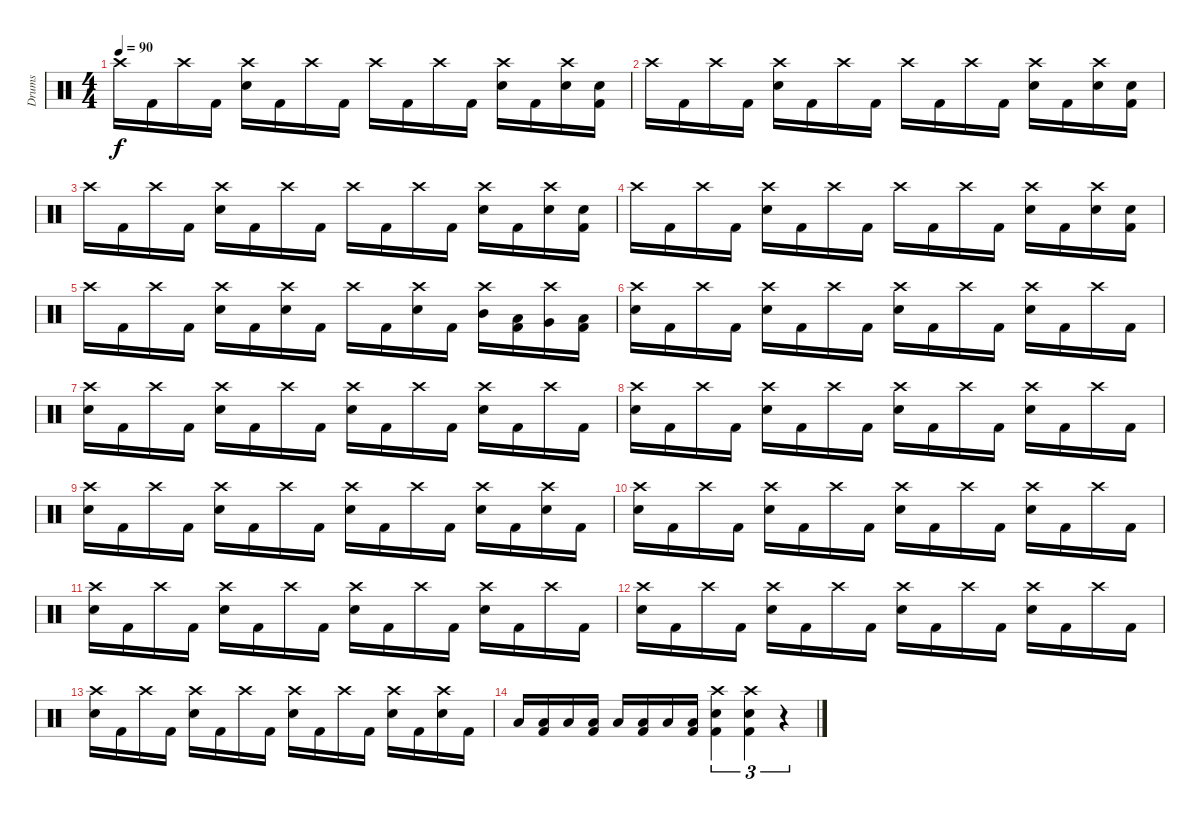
\track ("Drums" "Drums") {instrument percussion}
\staff {score}
\articulation defaults
\ts (4 4)
\tempo 90
\clef neutral
\ks c "Crash high (hit)".16{dy f} "Kick (hit) 2".16 "Crash high (hit)".16 "Kick (hit) 2".16
("Crash high (hit)" "Electric Snare (hit)").16 "Kick (hit) 2".16 "Crash high (hit)".16 "Kick (hit) 2".16 "Crash high (hit)".16 "Kick (hit) 2".16 "Crash high (hit)".16 "Kick (hit) 2".16 ("Crash high (hit)" "Electric Snare (hit)").16 "Kick (hit) 2".16 ("Crash high (hit)" "Electric Snare (hit)").16 ("Electric Snare (hit)" "Kick (hit) 2").16 |
"Crash high (hit)".16 "Kick (hit) 2".16 "Crash high (hit)".16 "Kick (hit) 2".16 ("Crash high (hit)" "Electric Snare (hit)").16 "Kick (hit) 2".16 "Crash high (hit)".16 "Kick (hit) 2".16 "Crash high (hit)".16 "Kick (hit) 2".16 "Crash high (hit)".16 "Kick (hit) 2".16 ("Crash high (hit)" "Electric Snare (hit)").16 "Kick (hit) 2".16 ("Crash high (hit)" "Electric Snare (hit)").16 ("Electric Snare (hit)" "Kick (hit) 2").16 |
"Crash high (hit)".16 "Kick (hit) 2".16 "Crash high (hit)".16 "Kick (hit) 2".16 ("Crash high (hit)" "Electric Snare (hit)").16 "Kick (hit) 2".16 "Crash high (hit)".16 "Kick (hit) 2".16 "Crash high (hit)".16 "Kick (hit) 2".16 "Crash high (hit)".16 "Kick (hit) 2".16 ("Crash high (hit)" "Electric Snare (hit)").16 "Kick (hit) 2".16 ("Crash high (hit)" "Electric Snare (hit)").16 ("Electric Snare (hit)" "Kick (hit) 2").16 |
"Crash high (hit)".16 "Kick (hit) 2".16 "Crash high (hit)".16 "Kick (hit) 2".16 ("Crash high (hit)" "Electric Snare (hit)").16 "Kick (hit) 2".16 "Crash high (hit)".16 "Kick (hit) 2".16 "Crash high (hit)".16 "Kick (hit) 2".16 "Crash high (hit)".16 "Kick (hit) 2".16 ("Crash high (hit)" "Electric Snare (hit)").16 "Kick (hit) 2".16 ("Crash high (hit)" "Electric Snare (hit)").16 ("Electric Snare (hit)" "Kick (hit) 2").16 |
"Crash high (hit)".16 "Kick (hit) 2".16 "Crash high (hit)".16 "Kick (hit) 2".16 ("Crash high (hit)" "Electric Snare (hit)").16 "Kick (hit) 2".16 ("Crash high (hit)" "Electric Snare (hit)").16 "Kick (hit) 2".16 "Crash high (hit)".16 "Kick (hit) 2".16 ("Crash high (hit)" "Electric Snare (hit)").16 "Kick (hit) 2".16 ("Crash high (hit)" "Mid Tom (hit)").16 ("Low Tom (hit)" "Kick (hit) 2").16 ("Crash high (hit)" "Very Low Tom (hit)").16 ("Low Floor Tom (hit)" "Kick (hit) 2").16 |
("Crash high (hit)" "Electric Snare (hit)").16 "Kick (hit) 2".16 "Crash high (hit)".16 "Kick (hit) 2".16 ("Crash high (hit)" "Electric Snare (hit)").16 "Kick (hit) 2".16 "Crash high (hit)".16 "Kick (hit) 2".16 ("Crash high (hit)" "Electric Snare (hit)").16 "Kick (hit) 2".16 "Crash high (hit)".16 "Kick (hit) 2".16 ("Crash high (hit)" "Electric Snare (hit)").16 "Kick (hit) 2".16 "Crash high (hit)".16 "Kick (hit) 2".16 |
("Crash high (hit)" "Electric Snare (hit)").16 "Kick (hit) 2".16 "Crash high (hit)".16 "Kick (hit) 2".16 ("Crash high (hit)" "Electric Snare (hit)").16 "Kick (hit) 2".16 "Crash high (hit)".16 "Kick (hit) 2".16 ("Crash high (hit)" "Electric Snare (hit)").16 "Kick (hit) 2".16 "Crash high (hit)".16 "Kick (hit) 2".16 ("Crash high (hit)" "Electric Snare (hit)").16 "Kick (hit) 2".16 "Crash high (hit)".16 "Kick (hit) 2".16 |
("Crash high (hit)" "Electric Snare (hit)").16 "Kick (hit) 2".16 "Crash high (hit)".16 "Kick (hit) 2".16 ("Crash high (hit)" "Electric Snare (hit)").16 "Kick (hit) 2".16 "Crash high (hit)".16 "Kick (hit) 2".16 ("Crash high (hit)" "Electric Snare (hit)").16 "Kick (hit) 2".16 "Crash high (hit)".16 "Kick (hit) 2".16 ("Crash high (hit)" "Electric Snare (hit)").16 "Kick (hit) 2".16 "Crash high (hit)".16 "Kick (hit) 2".16 |
("Crash high (hit)" "Electric Snare (hit)").16 "Kick (hit) 2".16 "Crash high (hit)".16 "Kick (hit) 2".16 ("Crash high (hit)" "Electric Snare (hit)").16 "Kick (hit) 2".16 "Crash high (hit)".16 "Kick (hit) 2".16 ("Crash high (hit)" "Electric Snare (hit)").16 "Kick (hit) 2".16 "Crash high (hit)".16 "Kick (hit) 2".16 ("Crash high (hit)" "Electric Snare (hit)").16 "Kick (hit) 2".16 ("Crash high (hit)" "Electric Snare (hit)").16 "Kick (hit) 2".16 |
("Crash high (hit)" "Electric Snare (hit)").16 "Kick (hit) 2".16 "Crash high (hit)".16 "Kick (hit) 2".16 ("Crash high (hit)" "Electric Snare (hit)").16 "Kick (hit) 2".16 "Crash high (hit)".16 "Kick (hit) 2".16 ("Crash high (hit)" "Electric Snare (hit)").16 "Kick (hit) 2".16 "Crash high (hit)".16 "Kick (hit) 2".16 ("Crash high (hit)" "Electric Snare (hit)").16 "Kick (hit) 2".16 "Crash high (hit)".16 "Kick (hit) 2".16 |
("Crash high (hit)" "Electric Snare (hit)").16 "Kick (hit) 2".16 "Crash high (hit)".16 "Kick (hit) 2".16 ("Crash high (hit)" "Electric Snare (hit)").16 "Kick (hit) 2".16 "Crash high (hit)".16 "Kick (hit) 2".16 ("Crash high (hit)" "Electric Snare (hit)").16 "Kick (hit) 2".16 "Crash high (hit)".16 "Kick (hit) 2".16 ("Crash high (hit)" "Electric Snare (hit)").16 "Kick (hit) 2".16 "Crash high (hit)".16 "Kick (hit) 2".16 |
("Crash high (hit)" "Electric Snare (hit)").16 "Kick (hit) 2".16 "Crash high (hit)".16 "Kick (hit) 2".16 ("Crash high (hit)" "Electric Snare (hit)").16 "Kick (hit) 2".16 "Crash high (hit)".16 "Kick (hit) 2".16 ("Crash high (hit)" "Electric Snare (hit)").16 "Kick (hit) 2".16 "Crash high (hit)".16 "Kick (hit) 2".16 ("Crash high (hit)" "Electric Snare (hit)").16 "Kick (hit) 2".16 "Crash high (hit)".16 "Kick (hit) 2".16 |
("Crash high (hit)" "Electric Snare (hit)").16 "Kick (hit) 2".16 "Crash high (hit)".16 "Kick (hit) 2".16 ("Crash high (hit)" "Electric Snare (hit)").16 "Kick (hit) 2".16 "Crash high (hit)".16 "Kick (hit) 2".16 ("Crash high (hit)" "Electric Snare (hit)").16 "Kick (hit) 2".16 "Crash high (hit)".16 "Kick (hit) 2".16 ("Crash high (hit)" "Electric Snare (hit)").16 "Kick (hit) 2".16 ("Crash high (hit)" "Electric Snare (hit)").16 "Kick (hit) 2".16 |
"Low Floor Tom (hit)".16 ("Low Floor Tom (hit)" "Kick (hit) 2").16 "Low Floor Tom (hit)".16 ("Low Floor Tom (hit)" "Kick (hit) 2").16 "Low Floor Tom (hit)".16 ("Low Floor Tom (hit)" "Kick (hit) 2").16 "Low Floor Tom (hit)".16 ("Low Floor Tom (hit)" "Kick (hit) 2").16 ("Crash high (hit)" "Electric Snare (hit)" "Kick (hit) 2").4{tu (3 2)} ("Crash high (hit)" "Electric Snare (hit)" "Kick (hit) 2").4{tu (3 2)} r.4{tu (3 2)}
